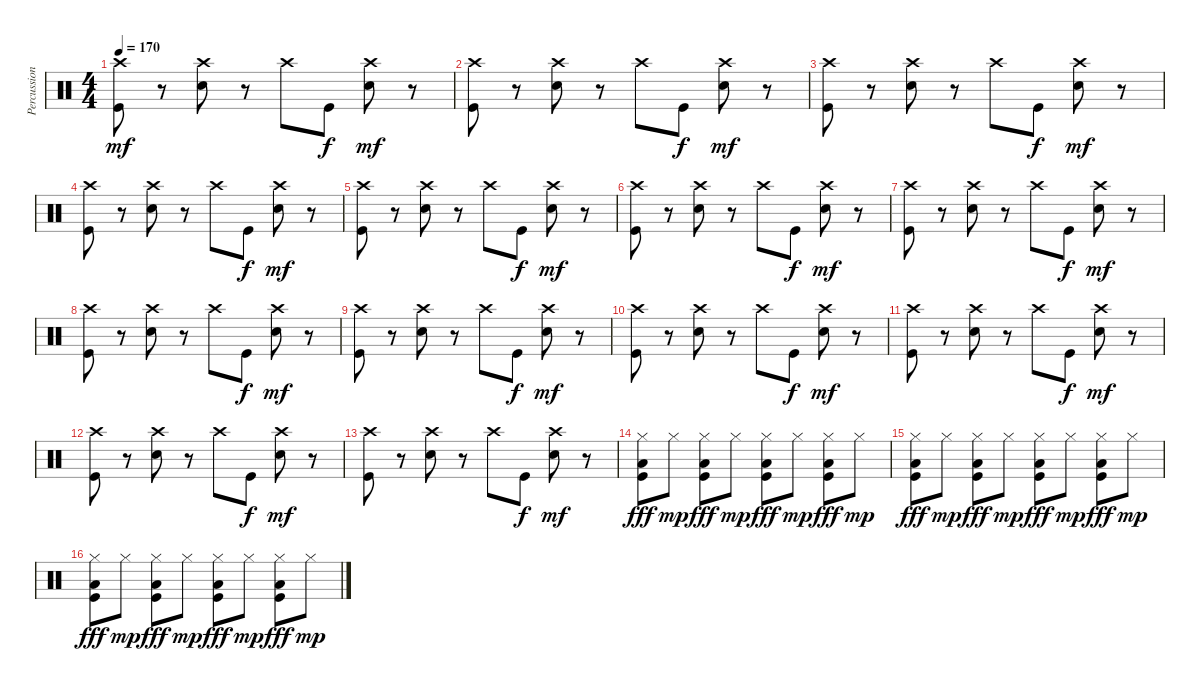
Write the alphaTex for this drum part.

\track ("Percussion" "Percussion") {instrument percussion}
\staff {score}
\articulation defaults
\ts (4 4)
\tempo 170
\clef neutral
\ks c
("Kick (hit)" "Crash high (hit)").8{dy mf} r.8 ("Snare (hit) 2" "Crash high (hit)").8 r.8 "Crash high (hit)".8 "Kick (hit)".8{dy f} ("Snare (hit) 2" "Crash high (hit)").8{dy mf} r.8 |
("Kick (hit)" "Crash high (hit)").8 r.8 ("Snare (hit) 2" "Crash high (hit)").8 r.8 "Crash high (hit)".8 "Kick (hit)".8{dy f} ("Snare (hit) 2" "Crash high (hit)").8{dy mf} r.8 |
("Kick (hit)" "Crash high (hit)").8 r.8 ("Snare (hit) 2" "Crash high (hit)").8 r.8 "Crash high (hit)".8 "Kick (hit)".8{dy f} ("Snare (hit) 2" "Crash high (hit)").8{dy mf} r.8 |
("Kick (hit)" "Crash high (hit)").8 r.8 ("Snare (hit) 2" "Crash high (hit)").8 r.8 "Crash high (hit)".8 "Kick (hit)".8{dy f} ("Snare (hit) 2" "Crash high (hit)").8{dy mf} r.8 |
("Kick (hit)" "Crash high (hit)").8 r.8 ("Snare (hit) 2" "Crash high (hit)").8 r.8 "Crash high (hit)".8 "Kick (hit)".8{dy f} ("Snare (hit) 2" "Crash high (hit)").8{dy mf} r.8 |
("Kick (hit)" "Crash high (hit)").8 r.8 ("Snare (hit) 2" "Crash high (hit)").8 r.8 "Crash high (hit)".8 "Kick (hit)".8{dy f} ("Snare (hit) 2" "Crash high (hit)").8{dy mf} r.8 |
("Kick (hit)" "Crash high (hit)").8 r.8 ("Snare (hit) 2" "Crash high (hit)").8 r.8 "Crash high (hit)".8 "Kick (hit)".8{dy f} ("Snare (hit) 2" "Crash high (hit)").8{dy mf} r.8 |
("Kick (hit)" "Crash high (hit)").8 r.8 ("Snare (hit) 2" "Crash high (hit)").8 r.8 "Crash high (hit)".8 "Kick (hit)".8{dy f} ("Snare (hit) 2" "Crash high (hit)").8{dy mf} r.8 |
("Kick (hit)" "Crash high (hit)").8 r.8 ("Snare (hit) 2" "Crash high (hit)").8 r.8 "Crash high (hit)".8 "Kick (hit)".8{dy f} ("Snare (hit) 2" "Crash high (hit)").8{dy mf} r.8 |
("Kick (hit)" "Crash high (hit)").8 r.8 ("Snare (hit) 2" "Crash high (hit)").8 r.8 "Crash high (hit)".8 "Kick (hit)".8{dy f} ("Snare (hit) 2" "Crash high (hit)").8{dy mf} r.8 |
("Kick (hit)" "Crash high (hit)").8 r.8 ("Snare (hit) 2" "Crash high (hit)").8 r.8 "Crash high (hit)".8 "Kick (hit)".8{dy f} ("Snare (hit) 2" "Crash high (hit)").8{dy mf} r.8 |
("Kick (hit)" "Crash high (hit)").8 r.8 ("Snare (hit) 2" "Crash high (hit)").8 r.8 "Crash high (hit)".8 "Kick (hit)".8{dy f} ("Snare (hit) 2" "Crash high (hit)").8{dy mf} r.8 |
("Kick (hit)" "Crash high (hit)").8 r.8 ("Snare (hit) 2" "Crash high (hit)").8 r.8 "Crash high (hit)".8 "Kick (hit)".8{dy f} ("Snare (hit) 2" "Crash high (hit)").8{dy mf} r.8 |
("Low Floor Tom (hit)" "Hi-Hat (closed)" "Kick (hit)").8{dy fff} "Hi-Hat (closed)".8{dy mp} ("Low Floor Tom (hit)" "Hi-Hat (closed)" "Kick (hit)").8{dy fff} "Hi-Hat (closed)".8{dy mp} ("Low Floor Tom (hit)" "Hi-Hat (closed)" "Kick (hit)").8{dy fff} "Hi-Hat (closed)".8{dy mp} ("Low Floor Tom (hit)" "Hi-Hat (closed)" "Kick (hit)").8{dy fff} "Hi-Hat (closed)".8{dy mp} |
("Low Floor Tom (hit)" "Hi-Hat (closed)" "Kick (hit)").8{dy fff} "Hi-Hat (closed)".8{dy mp} ("Low Floor Tom (hit)" "Hi-Hat (closed)" "Kick (hit)").8{dy fff} "Hi-Hat (closed)".8{dy mp} ("Low Floor Tom (hit)" "Hi-Hat (closed)" "Kick (hit)").8{dy fff} "Hi-Hat (closed)".8{dy mp} ("Low Floor Tom (hit)" "Hi-Hat (closed)" "Kick (hit)").8{dy fff} "Hi-Hat (closed)".8{dy mp} |
("Low Floor Tom (hit)" "Hi-Hat (closed)" "Kick (hit)").8{dy fff} "Hi-Hat (closed)".8{dy mp} ("Low Floor Tom (hit)" "Hi-Hat (closed)" "Kick (hit)").8{dy fff} "Hi-Hat (closed)".8{dy mp} ("Low Floor Tom (hit)" "Hi-Hat (closed)" "Kick (hit)").8{dy fff} "Hi-Hat (closed)".8{dy mp} ("Low Floor Tom (hit)" "Hi-Hat (closed)" "Kick (hit)").8{dy fff} "Hi-Hat (closed)".8{dy mp}
